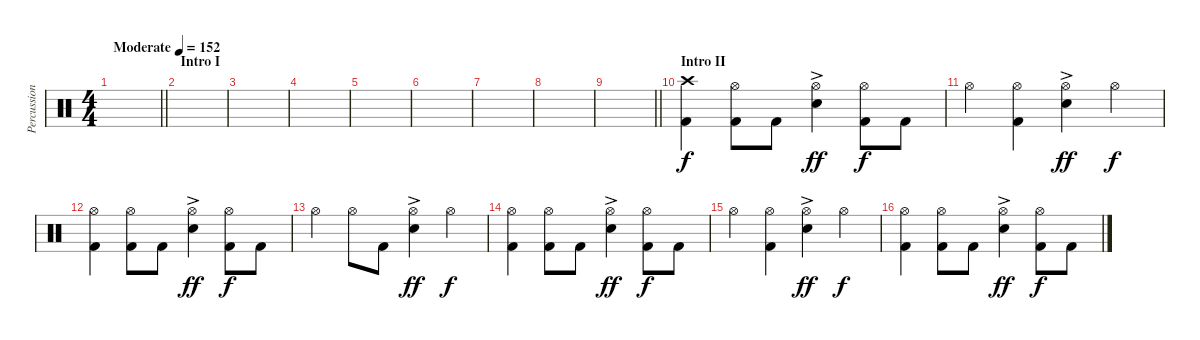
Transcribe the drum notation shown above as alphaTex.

\track ("Percussion" "Percussion") {instrument percussion}
\staff {score}
\articulation defaults
\ts (4 4)
\tempo (152 "Moderate")
\clef neutral
\barLineRight lightlight
\ks c
|
\section ("" "Intro I")
|
|
|
|
|
|
|
\barLineRight lightlight
|
\section ("" "Intro II")
("Crash high (hit)" "Kick (hit) 2").4 ("Hi-Hat (open)" "Kick (hit) 2").8 "Kick (hit) 2".8 ("Hi-Hat (open)" "Electric Snare (hit)"{ac}).4{dy ff} ("Hi-Hat (open)" "Kick (hit) 2").8{dy f} "Kick (hit) 2".8 |
"Hi-Hat (open)".4 ("Hi-Hat (open)" "Kick (hit) 2").4 ("Hi-Hat (open)" "Electric Snare (hit)"{ac}).4{dy ff} "Hi-Hat (open)".4{dy f} |
("Hi-Hat (open)" "Kick (hit) 2").4 ("Hi-Hat (open)" "Kick (hit) 2").8 "Kick (hit) 2".8 ("Hi-Hat (open)" "Electric Snare (hit)"{ac}).4{dy ff} ("Hi-Hat (open)" "Kick (hit) 2").8{dy f} "Kick (hit) 2".8 |
"Hi-Hat (open)".4 "Hi-Hat (open)".8 "Kick (hit) 2".8 ("Hi-Hat (open)" "Electric Snare (hit)"{ac}).4{dy ff} "Hi-Hat (open)".4{dy f} |
("Hi-Hat (open)" "Kick (hit) 2").4 ("Hi-Hat (open)" "Kick (hit) 2").8 "Kick (hit) 2".8 ("Hi-Hat (open)" "Electric Snare (hit)"{ac}).4{dy ff} ("Hi-Hat (open)" "Kick (hit) 2").8{dy f} "Kick (hit) 2".8 |
"Hi-Hat (open)".4 ("Hi-Hat (open)" "Kick (hit) 2").4 ("Hi-Hat (open)" "Electric Snare (hit)"{ac}).4{dy ff} "Hi-Hat (open)".4{dy f} |
("Hi-Hat (open)" "Kick (hit) 2").4 ("Hi-Hat (open)" "Kick (hit) 2").8 "Kick (hit) 2".8 ("Hi-Hat (open)" "Electric Snare (hit)"{ac}).4{dy ff} ("Hi-Hat (open)" "Kick (hit) 2").8{dy f} "Kick (hit) 2".8
